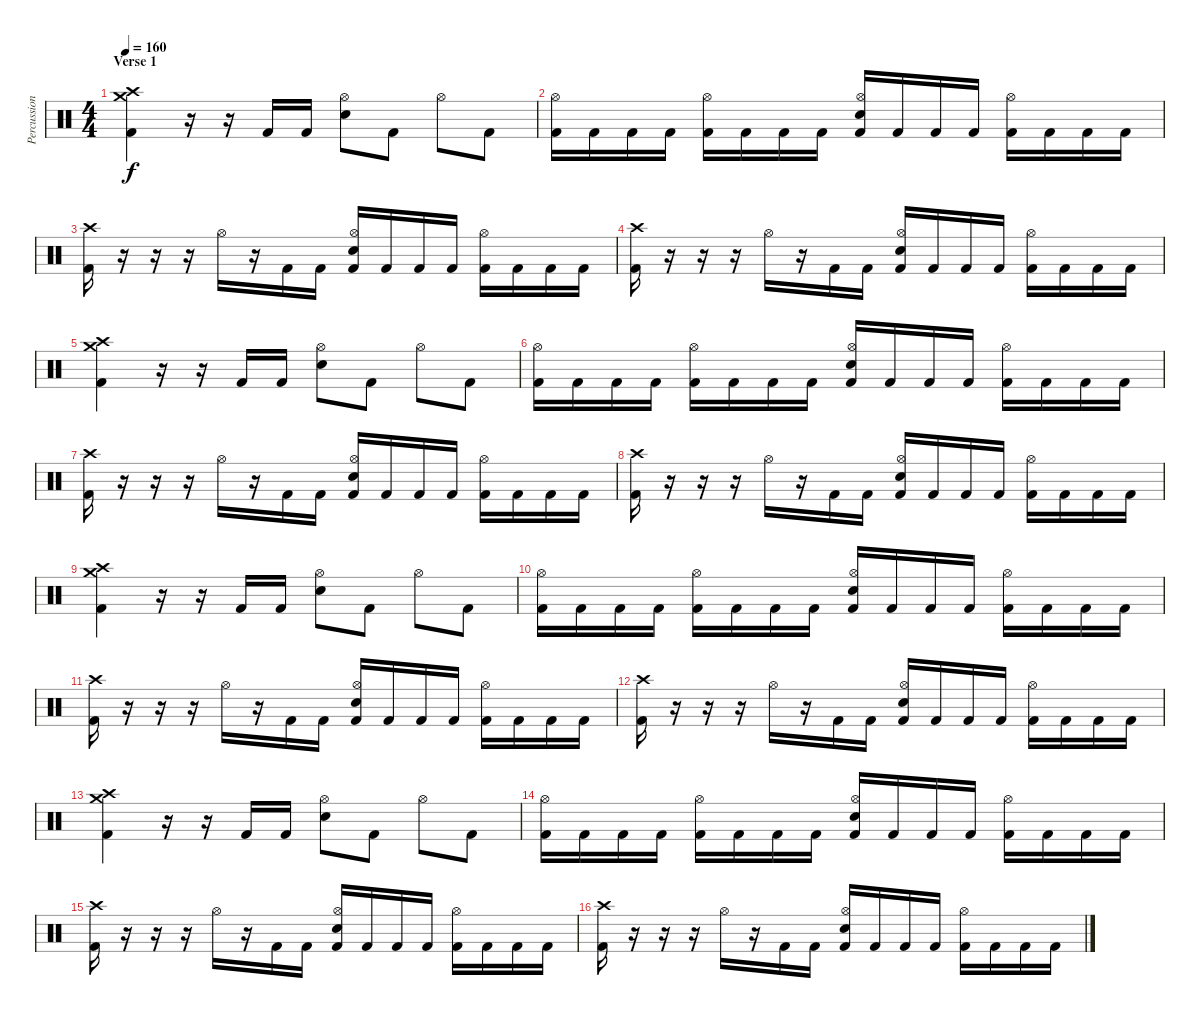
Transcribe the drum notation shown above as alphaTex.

\track ("Percussions" "Percussion") {instrument percussion}
\staff {score}
\articulation defaults
\ts (4 4)
\section ("" "Verse 1")
\tempo 160
\clef neutral
\ks c
("Crash medium (hit)" "Crash high (hit)" "Kick (hit) 2").4{dy f} r.16 r.16 "Kick (hit) 2".16 "Kick (hit) 2".16 ("Hi-Hat (open)" "Electric Snare (hit)").8 "Kick (hit) 2".8 "Hi-Hat (open)".8 "Kick (hit) 2".8 |
("Hi-Hat (open)" "Kick (hit) 2").16 "Kick (hit) 2".16 "Kick (hit) 2".16 "Kick (hit) 2".16 ("Hi-Hat (open)" "Kick (hit) 2").16 "Kick (hit) 2".16 "Kick (hit) 2".16 "Kick (hit) 2".16 ("Hi-Hat (open)" "Electric Snare (hit)" "Kick (hit) 2").16 "Kick (hit) 2".16 "Kick (hit) 2".16 "Kick (hit) 2".16 ("Hi-Hat (open)" "Kick (hit) 2").16 "Kick (hit) 2".16 "Kick (hit) 2".16 "Kick (hit) 2".16 |
("Crash high (hit)" "Kick (hit) 2").16 r.16 r.16 r.16 "Hi-Hat (open)".16 r.16 "Kick (hit) 2".16 "Kick (hit) 2".16 ("Hi-Hat (open)" "Electric Snare (hit)" "Kick (hit) 2").16 "Kick (hit) 2".16 "Kick (hit) 2".16 "Kick (hit) 2".16 ("Hi-Hat (open)" "Kick (hit) 2").16 "Kick (hit) 2".16 "Kick (hit) 2".16 "Kick (hit) 2".16 |
("Crash high (hit)" "Kick (hit) 2").16 r.16 r.16 r.16 "Hi-Hat (open)".16 r.16 "Kick (hit) 2".16 "Kick (hit) 2".16 ("Hi-Hat (open)" "Electric Snare (hit)" "Kick (hit) 2").16 "Kick (hit) 2".16 "Kick (hit) 2".16 "Kick (hit) 2".16 ("Hi-Hat (open)" "Kick (hit) 2").16 "Kick (hit) 2".16 "Kick (hit) 2".16 "Kick (hit) 2".16 |
("Crash medium (hit)" "Crash high (hit)" "Kick (hit) 2").4 r.16 r.16 "Kick (hit) 2".16 "Kick (hit) 2".16 ("Hi-Hat (open)" "Electric Snare (hit)").8 "Kick (hit) 2".8 "Hi-Hat (open)".8 "Kick (hit) 2".8 |
("Hi-Hat (open)" "Kick (hit) 2").16 "Kick (hit) 2".16 "Kick (hit) 2".16 "Kick (hit) 2".16 ("Hi-Hat (open)" "Kick (hit) 2").16 "Kick (hit) 2".16 "Kick (hit) 2".16 "Kick (hit) 2".16 ("Hi-Hat (open)" "Electric Snare (hit)" "Kick (hit) 2").16 "Kick (hit) 2".16 "Kick (hit) 2".16 "Kick (hit) 2".16 ("Hi-Hat (open)" "Kick (hit) 2").16 "Kick (hit) 2".16 "Kick (hit) 2".16 "Kick (hit) 2".16 |
("Crash high (hit)" "Kick (hit) 2").16 r.16 r.16 r.16 "Hi-Hat (open)".16 r.16 "Kick (hit) 2".16 "Kick (hit) 2".16 ("Hi-Hat (open)" "Electric Snare (hit)" "Kick (hit) 2").16 "Kick (hit) 2".16 "Kick (hit) 2".16 "Kick (hit) 2".16 ("Hi-Hat (open)" "Kick (hit) 2").16 "Kick (hit) 2".16 "Kick (hit) 2".16 "Kick (hit) 2".16 |
("Crash high (hit)" "Kick (hit) 2").16 r.16 r.16 r.16 "Hi-Hat (open)".16 r.16 "Kick (hit) 2".16 "Kick (hit) 2".16 ("Hi-Hat (open)" "Electric Snare (hit)" "Kick (hit) 2").16 "Kick (hit) 2".16 "Kick (hit) 2".16 "Kick (hit) 2".16 ("Hi-Hat (open)" "Kick (hit) 2").16 "Kick (hit) 2".16 "Kick (hit) 2".16 "Kick (hit) 2".16 |
("Crash medium (hit)" "Crash high (hit)" "Kick (hit) 2").4 r.16 r.16 "Kick (hit) 2".16 "Kick (hit) 2".16 ("Hi-Hat (open)" "Electric Snare (hit)").8 "Kick (hit) 2".8 "Hi-Hat (open)".8 "Kick (hit) 2".8 |
("Hi-Hat (open)" "Kick (hit) 2").16 "Kick (hit) 2".16 "Kick (hit) 2".16 "Kick (hit) 2".16 ("Hi-Hat (open)" "Kick (hit) 2").16 "Kick (hit) 2".16 "Kick (hit) 2".16 "Kick (hit) 2".16 ("Hi-Hat (open)" "Electric Snare (hit)" "Kick (hit) 2").16 "Kick (hit) 2".16 "Kick (hit) 2".16 "Kick (hit) 2".16 ("Hi-Hat (open)" "Kick (hit) 2").16 "Kick (hit) 2".16 "Kick (hit) 2".16 "Kick (hit) 2".16 |
("Crash high (hit)" "Kick (hit) 2").16 r.16 r.16 r.16 "Hi-Hat (open)".16 r.16 "Kick (hit) 2".16 "Kick (hit) 2".16 ("Hi-Hat (open)" "Electric Snare (hit)" "Kick (hit) 2").16 "Kick (hit) 2".16 "Kick (hit) 2".16 "Kick (hit) 2".16 ("Hi-Hat (open)" "Kick (hit) 2").16 "Kick (hit) 2".16 "Kick (hit) 2".16 "Kick (hit) 2".16 |
("Crash high (hit)" "Kick (hit) 2").16 r.16 r.16 r.16 "Hi-Hat (open)".16 r.16 "Kick (hit) 2".16 "Kick (hit) 2".16 ("Hi-Hat (open)" "Electric Snare (hit)" "Kick (hit) 2").16 "Kick (hit) 2".16 "Kick (hit) 2".16 "Kick (hit) 2".16 ("Hi-Hat (open)" "Kick (hit) 2").16 "Kick (hit) 2".16 "Kick (hit) 2".16 "Kick (hit) 2".16 |
("Crash medium (hit)" "Crash high (hit)" "Kick (hit) 2").4 r.16 r.16 "Kick (hit) 2".16 "Kick (hit) 2".16 ("Hi-Hat (open)" "Electric Snare (hit)").8 "Kick (hit) 2".8 "Hi-Hat (open)".8 "Kick (hit) 2".8 |
("Hi-Hat (open)" "Kick (hit) 2").16 "Kick (hit) 2".16 "Kick (hit) 2".16 "Kick (hit) 2".16 ("Hi-Hat (open)" "Kick (hit) 2").16 "Kick (hit) 2".16 "Kick (hit) 2".16 "Kick (hit) 2".16 ("Hi-Hat (open)" "Electric Snare (hit)" "Kick (hit) 2").16 "Kick (hit) 2".16 "Kick (hit) 2".16 "Kick (hit) 2".16 ("Hi-Hat (open)" "Kick (hit) 2").16 "Kick (hit) 2".16 "Kick (hit) 2".16 "Kick (hit) 2".16 |
("Crash high (hit)" "Kick (hit) 2").16 r.16 r.16 r.16 "Hi-Hat (open)".16 r.16 "Kick (hit) 2".16 "Kick (hit) 2".16 ("Hi-Hat (open)" "Electric Snare (hit)" "Kick (hit) 2").16 "Kick (hit) 2".16 "Kick (hit) 2".16 "Kick (hit) 2".16 ("Hi-Hat (open)" "Kick (hit) 2").16 "Kick (hit) 2".16 "Kick (hit) 2".16 "Kick (hit) 2".16 |
("Crash high (hit)" "Kick (hit) 2").16 r.16 r.16 r.16 "Hi-Hat (open)".16 r.16 "Kick (hit) 2".16 "Kick (hit) 2".16 ("Hi-Hat (open)" "Electric Snare (hit)" "Kick (hit) 2").16 "Kick (hit) 2".16 "Kick (hit) 2".16 "Kick (hit) 2".16 ("Hi-Hat (open)" "Kick (hit) 2").16 "Kick (hit) 2".16 "Kick (hit) 2".16 "Kick (hit) 2".16
